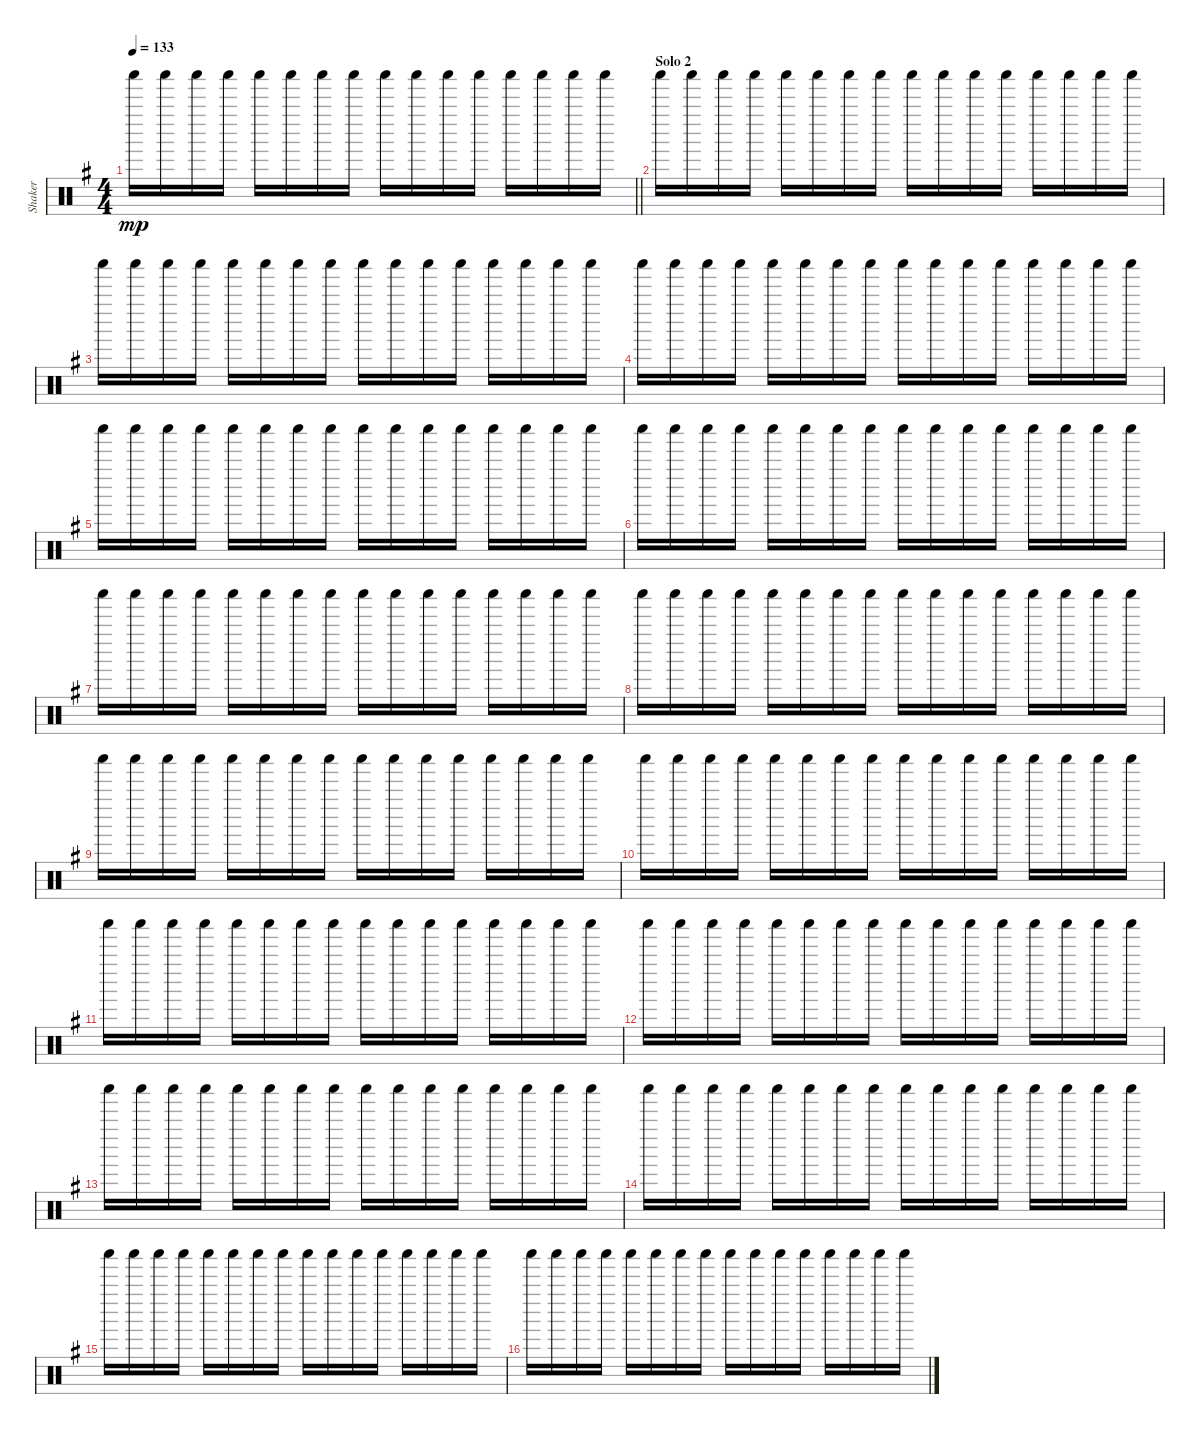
\track ("Shaker" "Shaker") {instrument percussion}
\staff {score}
\articulation defaults
\ts (4 4)
\tempo 133
\clef neutral
\barLineRight lightlight
\ks g "Shaker (hit)".16{dy mp} "Shaker (hit)".16 "Shaker (hit)".16 "Shaker (hit)".16 "Shaker (hit)".16 "Shaker (hit)".16 "Shaker (hit)".16 "Shaker (hit)".16 "Shaker (hit)".16 "Shaker (hit)".16 "Shaker (hit)".16 "Shaker (hit)".16 "Shaker (hit)".16 "Shaker (hit)".16 "Shaker (hit)".16 "Shaker (hit)".16
|
\section ("" "Solo 2")
"Shaker (hit)".16 "Shaker (hit)".16 "Shaker (hit)".16 "Shaker (hit)".16 "Shaker (hit)".16 "Shaker (hit)".16 "Shaker (hit)".16 "Shaker (hit)".16 "Shaker (hit)".16 "Shaker (hit)".16 "Shaker (hit)".16 "Shaker (hit)".16 "Shaker (hit)".16 "Shaker (hit)".16 "Shaker (hit)".16 "Shaker (hit)".16 |
"Shaker (hit)".16 "Shaker (hit)".16 "Shaker (hit)".16 "Shaker (hit)".16 "Shaker (hit)".16 "Shaker (hit)".16 "Shaker (hit)".16 "Shaker (hit)".16 "Shaker (hit)".16 "Shaker (hit)".16 "Shaker (hit)".16 "Shaker (hit)".16 "Shaker (hit)".16 "Shaker (hit)".16 "Shaker (hit)".16 "Shaker (hit)".16 |
"Shaker (hit)".16 "Shaker (hit)".16 "Shaker (hit)".16 "Shaker (hit)".16 "Shaker (hit)".16 "Shaker (hit)".16 "Shaker (hit)".16 "Shaker (hit)".16 "Shaker (hit)".16 "Shaker (hit)".16 "Shaker (hit)".16 "Shaker (hit)".16 "Shaker (hit)".16 "Shaker (hit)".16 "Shaker (hit)".16 "Shaker (hit)".16 |
"Shaker (hit)".16 "Shaker (hit)".16 "Shaker (hit)".16 "Shaker (hit)".16 "Shaker (hit)".16 "Shaker (hit)".16 "Shaker (hit)".16 "Shaker (hit)".16 "Shaker (hit)".16 "Shaker (hit)".16 "Shaker (hit)".16 "Shaker (hit)".16 "Shaker (hit)".16 "Shaker (hit)".16 "Shaker (hit)".16 "Shaker (hit)".16 |
"Shaker (hit)".16 "Shaker (hit)".16 "Shaker (hit)".16 "Shaker (hit)".16 "Shaker (hit)".16 "Shaker (hit)".16 "Shaker (hit)".16 "Shaker (hit)".16 "Shaker (hit)".16 "Shaker (hit)".16 "Shaker (hit)".16 "Shaker (hit)".16 "Shaker (hit)".16 "Shaker (hit)".16 "Shaker (hit)".16 "Shaker (hit)".16 |
"Shaker (hit)".16 "Shaker (hit)".16 "Shaker (hit)".16 "Shaker (hit)".16 "Shaker (hit)".16 "Shaker (hit)".16 "Shaker (hit)".16 "Shaker (hit)".16 "Shaker (hit)".16 "Shaker (hit)".16 "Shaker (hit)".16 "Shaker (hit)".16 "Shaker (hit)".16 "Shaker (hit)".16 "Shaker (hit)".16 "Shaker (hit)".16 |
"Shaker (hit)".16 "Shaker (hit)".16 "Shaker (hit)".16 "Shaker (hit)".16 "Shaker (hit)".16 "Shaker (hit)".16 "Shaker (hit)".16 "Shaker (hit)".16 "Shaker (hit)".16 "Shaker (hit)".16 "Shaker (hit)".16 "Shaker (hit)".16 "Shaker (hit)".16 "Shaker (hit)".16 "Shaker (hit)".16 "Shaker (hit)".16 |
"Shaker (hit)".16 "Shaker (hit)".16 "Shaker (hit)".16 "Shaker (hit)".16 "Shaker (hit)".16 "Shaker (hit)".16 "Shaker (hit)".16 "Shaker (hit)".16 "Shaker (hit)".16 "Shaker (hit)".16 "Shaker (hit)".16 "Shaker (hit)".16 "Shaker (hit)".16 "Shaker (hit)".16 "Shaker (hit)".16 "Shaker (hit)".16 |
"Shaker (hit)".16 "Shaker (hit)".16 "Shaker (hit)".16 "Shaker (hit)".16 "Shaker (hit)".16 "Shaker (hit)".16 "Shaker (hit)".16 "Shaker (hit)".16 "Shaker (hit)".16 "Shaker (hit)".16 "Shaker (hit)".16 "Shaker (hit)".16 "Shaker (hit)".16 "Shaker (hit)".16 "Shaker (hit)".16 "Shaker (hit)".16 |
"Shaker (hit)".16 "Shaker (hit)".16 "Shaker (hit)".16 "Shaker (hit)".16 "Shaker (hit)".16 "Shaker (hit)".16 "Shaker (hit)".16 "Shaker (hit)".16 "Shaker (hit)".16 "Shaker (hit)".16 "Shaker (hit)".16 "Shaker (hit)".16 "Shaker (hit)".16 "Shaker (hit)".16 "Shaker (hit)".16 "Shaker (hit)".16 |
"Shaker (hit)".16 "Shaker (hit)".16 "Shaker (hit)".16 "Shaker (hit)".16 "Shaker (hit)".16 "Shaker (hit)".16 "Shaker (hit)".16 "Shaker (hit)".16 "Shaker (hit)".16 "Shaker (hit)".16 "Shaker (hit)".16 "Shaker (hit)".16 "Shaker (hit)".16 "Shaker (hit)".16 "Shaker (hit)".16 "Shaker (hit)".16 |
"Shaker (hit)".16 "Shaker (hit)".16 "Shaker (hit)".16 "Shaker (hit)".16 "Shaker (hit)".16 "Shaker (hit)".16 "Shaker (hit)".16 "Shaker (hit)".16 "Shaker (hit)".16 "Shaker (hit)".16 "Shaker (hit)".16 "Shaker (hit)".16 "Shaker (hit)".16 "Shaker (hit)".16 "Shaker (hit)".16 "Shaker (hit)".16 |
"Shaker (hit)".16 "Shaker (hit)".16 "Shaker (hit)".16 "Shaker (hit)".16 "Shaker (hit)".16 "Shaker (hit)".16 "Shaker (hit)".16 "Shaker (hit)".16 "Shaker (hit)".16 "Shaker (hit)".16 "Shaker (hit)".16 "Shaker (hit)".16 "Shaker (hit)".16 "Shaker (hit)".16 "Shaker (hit)".16 "Shaker (hit)".16 |
"Shaker (hit)".16 "Shaker (hit)".16 "Shaker (hit)".16 "Shaker (hit)".16 "Shaker (hit)".16 "Shaker (hit)".16 "Shaker (hit)".16 "Shaker (hit)".16 "Shaker (hit)".16 "Shaker (hit)".16 "Shaker (hit)".16 "Shaker (hit)".16 "Shaker (hit)".16 "Shaker (hit)".16 "Shaker (hit)".16 "Shaker (hit)".16 |
"Shaker (hit)".16 "Shaker (hit)".16 "Shaker (hit)".16 "Shaker (hit)".16 "Shaker (hit)".16 "Shaker (hit)".16 "Shaker (hit)".16 "Shaker (hit)".16 "Shaker (hit)".16 "Shaker (hit)".16 "Shaker (hit)".16 "Shaker (hit)".16 "Shaker (hit)".16 "Shaker (hit)".16 "Shaker (hit)".16 "Shaker (hit)".16
